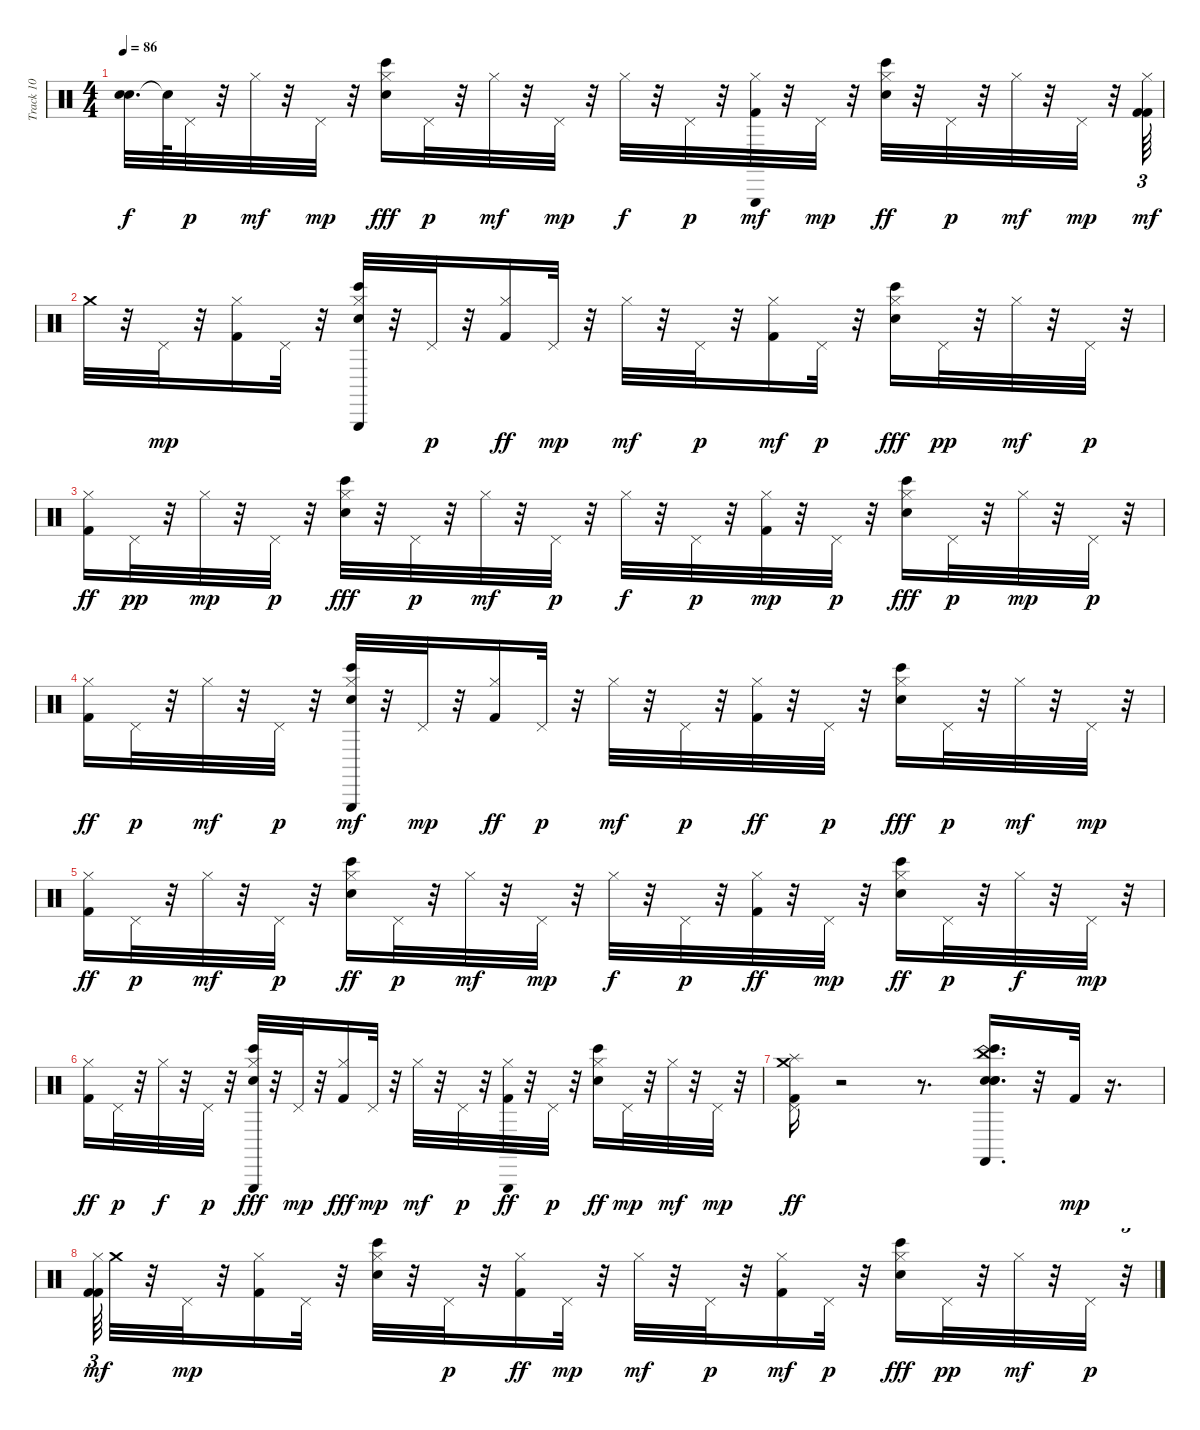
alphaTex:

\track ("Track 10" "Track 10") {instrument percussion}
\staff {score}
\articulation defaults
\ts (4 4)
\tempo 86
\clef neutral
\ks c
("Snare (hit)"{t} "Snare (hit)"{t}).32{d dy f} "Snare (hit)"{t}.64 "Pedal Hi-Hat (hit)".32{dy p} r.32 "Hi-Hat (closed)".32{dy mf} r.32 "Pedal Hi-Hat (hit)".32{dy mp} r.32 ("Hi-Hat (closed)" "Bongo High (hit)" "Electric Snare (hit)").16{dy fff} "Pedal Hi-Hat (hit)".32{dy p} r.32 "Hi-Hat (closed)".32{dy mf} r.32 "Pedal Hi-Hat (hit)".32{dy mp} r.32 "Hi-Hat (closed)".32{dy f} r.32 "Pedal Hi-Hat (hit)".32{dy p} r.32 ("Triangle (hit)" "Hi-Hat (closed)" "Kick (hit) 2").32{dy mf} r.32 "Pedal Hi-Hat (hit)".32{dy mp} r.32 ("Hi-Hat (closed)" "Electric Snare (hit)" "Bongo High (hit)").32{dy ff} r.32 "Pedal Hi-Hat (hit)".32{dy p} r.32 "Hi-Hat (closed)".32{dy mf} r.32 "Pedal Hi-Hat (hit)".32{dy mp} r.32 ("Hi-Hat (closed)" "Kick (hit) 2" "Kick (hit) 2").64{tu (3 2) dy mf} |
"Crash medium (hit)".32 r.32 "Pedal Hi-Hat (hit)".32{dy mp} r.32 ("Hi-Hat (closed)" "Kick (hit) 2").16 "Pedal Hi-Hat (hit)".32 r.32 ("Hi-Hat (closed)" "Electric Snare (hit)" "Bongo High (hit)" "Triangle (hit)").32 r.32 "Pedal Hi-Hat (hit)".32{dy p} r.32 ("Hi-Hat (closed)" "Kick (hit) 2").16{dy ff} "Pedal Hi-Hat (hit)".32{dy mp} r.32 "Hi-Hat (closed)".32{dy mf} r.32 "Pedal Hi-Hat (hit)".32{dy p} r.32 ("Hi-Hat (closed)" "Kick (hit) 2").16{dy mf} "Pedal Hi-Hat (hit)".32{dy p} r.32 ("Hi-Hat (closed)" "Electric Snare (hit)" "Bongo High (hit)").16{dy fff} "Pedal Hi-Hat (hit)".32{dy pp} r.32 "Hi-Hat (closed)".32{dy mf} r.32 "Pedal Hi-Hat (hit)".32{dy p} r.32 |
("Hi-Hat (closed)" "Kick (hit) 2").16{dy ff} "Pedal Hi-Hat (hit)".32{dy pp} r.32 "Hi-Hat (closed)".32{dy mp} r.32 "Pedal Hi-Hat (hit)".32{dy p} r.32 ("Hi-Hat (closed)" "Electric Snare (hit)" "Bongo High (hit)").32{dy fff} r.32 "Pedal Hi-Hat (hit)".32{dy p} r.32 "Hi-Hat (closed)".32{dy mf} r.32 "Pedal Hi-Hat (hit)".32{dy p} r.32 "Hi-Hat (closed)".32{dy f} r.32 "Pedal Hi-Hat (hit)".32{dy p} r.32 ("Hi-Hat (closed)" "Kick (hit) 2").32{dy mp} r.32 "Pedal Hi-Hat (hit)".32{dy p} r.32 ("Hi-Hat (closed)" "Electric Snare (hit)" "Bongo High (hit)").16{dy fff} "Pedal Hi-Hat (hit)".32{dy p} r.32 "Hi-Hat (closed)".32{dy mp} r.32 "Pedal Hi-Hat (hit)".32{dy p} r.32 |
("Hi-Hat (closed)" "Kick (hit) 2").16{dy ff} "Pedal Hi-Hat (hit)".32{dy p} r.32 "Hi-Hat (closed)".32{dy mf} r.32 "Pedal Hi-Hat (hit)".32{dy p} r.32 ("Triangle (hit)" "Hi-Hat (closed)" "Electric Snare (hit)" "Bongo High (hit)").32{dy mf} r.32 "Pedal Hi-Hat (hit)".32{dy mp} r.32 ("Hi-Hat (closed)" "Kick (hit) 2").16{dy ff} "Pedal Hi-Hat (hit)".32{dy p} r.32 "Hi-Hat (closed)".32{dy mf} r.32 "Pedal Hi-Hat (hit)".32{dy p} r.32 ("Hi-Hat (closed)" "Kick (hit) 2").32{dy ff} r.32 "Pedal Hi-Hat (hit)".32{dy p} r.32 ("Hi-Hat (closed)" "Electric Snare (hit)" "Bongo High (hit)").16{dy fff} "Pedal Hi-Hat (hit)".32{dy p} r.32 "Hi-Hat (closed)".32{dy mf} r.32 "Pedal Hi-Hat (hit)".32{dy mp} r.32 |
("Hi-Hat (closed)" "Kick (hit) 2").16{dy ff} "Pedal Hi-Hat (hit)".32{dy p} r.32 "Hi-Hat (closed)".32{dy mf} r.32 "Pedal Hi-Hat (hit)".32{dy p} r.32 ("Hi-Hat (closed)" "Electric Snare (hit)" "Bongo High (hit)").16{dy ff} "Pedal Hi-Hat (hit)".32{dy p} r.32 "Hi-Hat (closed)".32{dy mf} r.32 "Pedal Hi-Hat (hit)".32{dy mp} r.32 "Hi-Hat (closed)".32{dy f} r.32 "Pedal Hi-Hat (hit)".32{dy p} r.32 ("Hi-Hat (closed)" "Kick (hit) 2").32{dy ff} r.32 "Pedal Hi-Hat (hit)".32{dy mp} r.32 ("Hi-Hat (closed)" "Electric Snare (hit)" "Bongo High (hit)").16{dy ff} "Pedal Hi-Hat (hit)".32{dy p} r.32 "Hi-Hat (closed)".32{dy f} r.32 "Pedal Hi-Hat (hit)".32{dy mp} r.32 |
("Hi-Hat (closed)" "Kick (hit) 2").16{dy ff} "Pedal Hi-Hat (hit)".32{dy p} r.32 "Hi-Hat (closed)".32{dy f} r.32 "Pedal Hi-Hat (hit)".32{dy p} r.32 ("Hi-Hat (closed)" "Triangle (hit)" "Bongo High (hit)" "Electric Snare (hit)").32{dy fff} r.32 "Pedal Hi-Hat (hit)".32{dy mp} r.32 ("Hi-Hat (closed)" "Kick (hit) 2").16{dy fff} "Pedal Hi-Hat (hit)".32{dy mp} r.32 "Hi-Hat (closed)".32{dy mf} r.32 "Pedal Hi-Hat (hit)".32{dy p} r.32 ("Hi-Hat (closed)" "Triangle (hit)" "Kick (hit) 2").32{dy ff} r.32 "Pedal Hi-Hat (hit)".32{dy p} r.32 ("Hi-Hat (closed)" "Bongo High (hit)" "Electric Snare (hit)").16{dy ff} "Pedal Hi-Hat (hit)".32{dy mp} r.32 "Hi-Hat (closed)".32{dy mf} r.32 "Pedal Hi-Hat (hit)".32{dy mp} r.32 |
("Pedal Hi-Hat (hit)" "Crash medium (hit)" "Splash (hit)" "Kick (hit) 2").16{dy ff} r.2 r.8{d} ("China (hit)" "Snare (hit)" "Hand Clap (hit)" "Snare (hit)" "Castanets (hit)" "Bongo High (hit)").16{d} r.32 "Kick (hit) 2".32{dy mp} r.16{d} |
("Hi-Hat (closed)" "Kick (hit) 2" "Kick (hit) 2").64{tu (3 2) dy mf} "Crash medium (hit)".32 r.32 "Pedal Hi-Hat (hit)".32{dy mp} r.32 ("Hi-Hat (closed)" "Kick (hit) 2").16 "Pedal Hi-Hat (hit)".32 r.32 ("Hi-Hat (closed)" "Electric Snare (hit)" "Bongo High (hit)").32 r.32 "Pedal Hi-Hat (hit)".32{dy p} r.32 ("Hi-Hat (closed)" "Kick (hit) 2").16{dy ff} "Pedal Hi-Hat (hit)".32{dy mp} r.32 "Hi-Hat (closed)".32{dy mf} r.32 "Pedal Hi-Hat (hit)".32{dy p} r.32 ("Hi-Hat (closed)" "Kick (hit) 2").16{dy mf} "Pedal Hi-Hat (hit)".32{dy p} r.32 ("Hi-Hat (closed)" "Electric Snare (hit)" "Bongo High (hit)").16{dy fff} "Pedal Hi-Hat (hit)".32{dy pp} r.32 "Hi-Hat (closed)".32{dy mf} r.32 "Pedal Hi-Hat (hit)".32{dy p} r.32{tu (3 2)}
